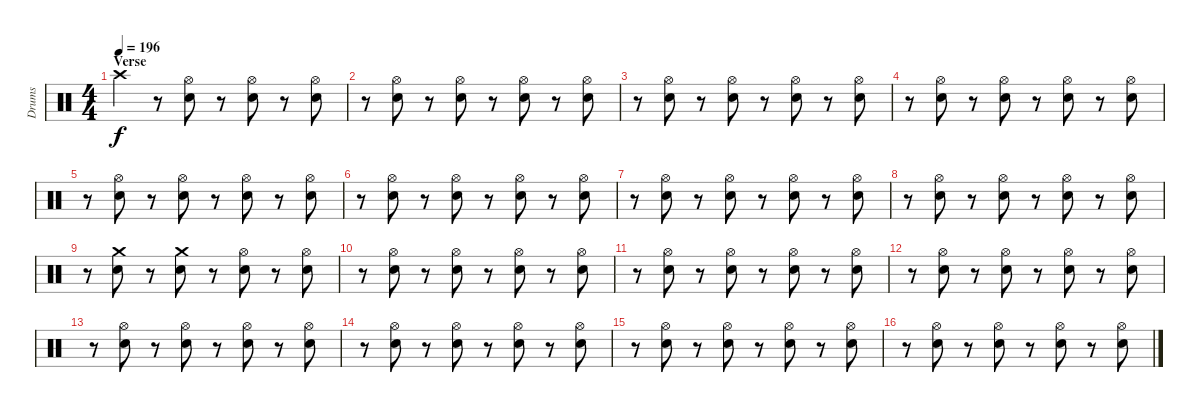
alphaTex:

\track ("Drums" "Drums") {instrument percussion}
\staff {score}
\articulation defaults
\ts (4 4)
\section ("" "Verse")
\tempo 196
\clef neutral
\ks c "Crash high (hit)".4{dy f}
r.8 ("Hi-Hat (open)" "Electric Snare (hit)").8 r.8 ("Hi-Hat (open)" "Electric Snare (hit)").8 r.8 ("Hi-Hat (open)" "Electric Snare (hit)").8 |
r.8 ("Hi-Hat (open)" "Electric Snare (hit)").8 r.8 ("Hi-Hat (open)" "Electric Snare (hit)").8 r.8 ("Hi-Hat (open)" "Electric Snare (hit)").8 r.8 ("Hi-Hat (open)" "Electric Snare (hit)").8 |
r.8 ("Hi-Hat (open)" "Electric Snare (hit)").8 r.8 ("Hi-Hat (open)" "Electric Snare (hit)").8 r.8 ("Hi-Hat (open)" "Electric Snare (hit)").8 r.8 ("Hi-Hat (open)" "Electric Snare (hit)").8 |
r.8 ("Hi-Hat (open)" "Electric Snare (hit)").8 r.8 ("Hi-Hat (open)" "Electric Snare (hit)").8 r.8 ("Hi-Hat (open)" "Electric Snare (hit)").8 r.8 ("Hi-Hat (open)" "Electric Snare (hit)").8 |
r.8 ("Hi-Hat (open)" "Electric Snare (hit)").8 r.8 ("Hi-Hat (open)" "Electric Snare (hit)").8 r.8 ("Hi-Hat (open)" "Electric Snare (hit)").8 r.8 ("Hi-Hat (open)" "Electric Snare (hit)").8 |
r.8 ("Hi-Hat (open)" "Electric Snare (hit)").8 r.8 ("Hi-Hat (open)" "Electric Snare (hit)").8 r.8 ("Hi-Hat (open)" "Electric Snare (hit)").8 r.8 ("Hi-Hat (open)" "Electric Snare (hit)").8 |
r.8 ("Hi-Hat (open)" "Electric Snare (hit)").8 r.8 ("Hi-Hat (open)" "Electric Snare (hit)").8 r.8 ("Hi-Hat (open)" "Electric Snare (hit)").8 r.8 ("Hi-Hat (open)" "Electric Snare (hit)").8 |
r.8 ("Hi-Hat (open)" "Electric Snare (hit)").8 r.8 ("Hi-Hat (open)" "Electric Snare (hit)").8 r.8 ("Hi-Hat (open)" "Electric Snare (hit)").8 r.8 ("Hi-Hat (open)" "Electric Snare (hit)").8 |
r.8 ("Crash medium (hit)" "Electric Snare (hit)").8 r.8 ("Crash medium (hit)" "Electric Snare (hit)").8 r.8 ("Hi-Hat (open)" "Electric Snare (hit)").8 r.8 ("Hi-Hat (open)" "Electric Snare (hit)").8 |
r.8 ("Hi-Hat (open)" "Electric Snare (hit)").8 r.8 ("Hi-Hat (open)" "Electric Snare (hit)").8 r.8 ("Hi-Hat (open)" "Electric Snare (hit)").8 r.8 ("Hi-Hat (open)" "Electric Snare (hit)").8 |
r.8 ("Hi-Hat (open)" "Electric Snare (hit)").8 r.8 ("Hi-Hat (open)" "Electric Snare (hit)").8 r.8 ("Hi-Hat (open)" "Electric Snare (hit)").8 r.8 ("Hi-Hat (open)" "Electric Snare (hit)").8 |
r.8 ("Hi-Hat (open)" "Electric Snare (hit)").8 r.8 ("Hi-Hat (open)" "Electric Snare (hit)").8 r.8 ("Hi-Hat (open)" "Electric Snare (hit)").8 r.8 ("Hi-Hat (open)" "Electric Snare (hit)").8 |
r.8 ("Hi-Hat (open)" "Electric Snare (hit)").8 r.8 ("Hi-Hat (open)" "Electric Snare (hit)").8 r.8 ("Hi-Hat (open)" "Electric Snare (hit)").8 r.8 ("Hi-Hat (open)" "Electric Snare (hit)").8 |
r.8 ("Hi-Hat (open)" "Electric Snare (hit)").8 r.8 ("Hi-Hat (open)" "Electric Snare (hit)").8 r.8 ("Hi-Hat (open)" "Electric Snare (hit)").8 r.8 ("Hi-Hat (open)" "Electric Snare (hit)").8 |
r.8 ("Hi-Hat (open)" "Electric Snare (hit)").8 r.8 ("Hi-Hat (open)" "Electric Snare (hit)").8 r.8 ("Hi-Hat (open)" "Electric Snare (hit)").8 r.8 ("Hi-Hat (open)" "Electric Snare (hit)").8 |
r.8 ("Hi-Hat (open)" "Electric Snare (hit)").8 r.8 ("Hi-Hat (open)" "Electric Snare (hit)").8 r.8 ("Hi-Hat (open)" "Electric Snare (hit)").8 r.8 ("Hi-Hat (open)" "Electric Snare (hit)").8
